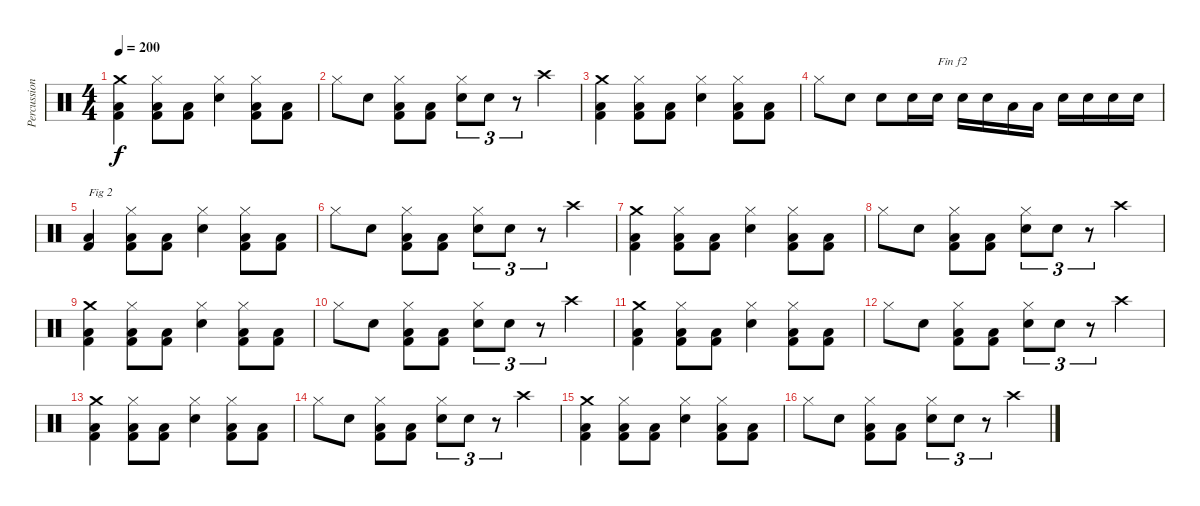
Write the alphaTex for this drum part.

\track ("Percussions" "Percussion") {instrument percussion}
\staff {score}
\articulation defaults
\ts (4 4)
\tempo 200
\clef neutral
\ks c
("Kick (hit) 2" "Low Floor Tom (hit)" "Crash medium (hit)").4{dy f} ("Kick (hit) 2" "Low Floor Tom (hit)" "Hi-Hat (closed)").8 ("Kick (hit) 2" "Low Floor Tom (hit)").8 ("Snare (hit) 2" "Hi-Hat (closed)").4 ("Kick (hit) 2" "Low Floor Tom (hit)" "Hi-Hat (closed)").8 ("Kick (hit) 2" "Low Floor Tom (hit)").8 |
"Hi-Hat (closed)".8 "Snare (hit) 2".8 ("Kick (hit) 2" "Low Floor Tom (hit)" "Hi-Hat (closed)").8 ("Kick (hit) 2" "Low Floor Tom (hit)").8 ("Snare (hit) 2" "Hi-Hat (closed)").8{tu (3 2)} "Snare (hit) 2".8{tu (3 2)} r.8{tu (3 2)} "Crash high (hit)".4 |
("Kick (hit) 2" "Low Floor Tom (hit)" "Crash medium (hit)").4 ("Kick (hit) 2" "Low Floor Tom (hit)" "Hi-Hat (closed)").8 ("Kick (hit) 2" "Low Floor Tom (hit)").8 ("Snare (hit) 2" "Hi-Hat (closed)").4 ("Kick (hit) 2" "Low Floor Tom (hit)" "Hi-Hat (closed)").8 ("Kick (hit) 2" "Low Floor Tom (hit)").8 |
"Hi-Hat (closed)".8 "Snare (hit) 2".8 "Snare (hit) 2".8 "Snare (hit) 2".16 "Snare (hit) 2".16{txt "Fin f2"} "Snare (hit) 2".16 "Snare (hit) 2".16 "Low Tom (hit)".16 "Low Tom (hit)".16 "Snare (hit) 2".16 "Snare (hit) 2".16 "Snare (hit) 2".16 "Snare (hit) 2".16 |
("Kick (hit) 2" "Low Floor Tom (hit)").4{txt "Fig 2"} ("Kick (hit) 2" "Low Floor Tom (hit)" "Hi-Hat (closed)").8 ("Kick (hit) 2" "Low Floor Tom (hit)").8 ("Snare (hit) 2" "Hi-Hat (closed)").4 ("Kick (hit) 2" "Low Floor Tom (hit)" "Hi-Hat (closed)").8 ("Kick (hit) 2" "Low Floor Tom (hit)").8 |
"Hi-Hat (closed)".8 "Snare (hit) 2".8 ("Kick (hit) 2" "Low Floor Tom (hit)" "Hi-Hat (closed)").8 ("Kick (hit) 2" "Low Floor Tom (hit)").8 ("Snare (hit) 2" "Hi-Hat (closed)").8{tu (3 2)} "Snare (hit) 2".8{tu (3 2)} r.8{tu (3 2)} "Crash high (hit)".4 |
("Kick (hit) 2" "Low Floor Tom (hit)" "Crash medium (hit)").4 ("Kick (hit) 2" "Low Floor Tom (hit)" "Hi-Hat (closed)").8 ("Kick (hit) 2" "Low Floor Tom (hit)").8 ("Snare (hit) 2" "Hi-Hat (closed)").4 ("Kick (hit) 2" "Low Floor Tom (hit)" "Hi-Hat (closed)").8 ("Kick (hit) 2" "Low Floor Tom (hit)").8 |
"Hi-Hat (closed)".8 "Snare (hit) 2".8 ("Kick (hit) 2" "Low Floor Tom (hit)" "Hi-Hat (closed)").8 ("Kick (hit) 2" "Low Floor Tom (hit)").8 ("Snare (hit) 2" "Hi-Hat (closed)").8{tu (3 2)} "Snare (hit) 2".8{tu (3 2)} r.8{tu (3 2)} "Crash high (hit)".4 |
("Kick (hit) 2" "Low Floor Tom (hit)" "Crash medium (hit)").4 ("Kick (hit) 2" "Low Floor Tom (hit)" "Hi-Hat (closed)").8 ("Kick (hit) 2" "Low Floor Tom (hit)").8 ("Snare (hit) 2" "Hi-Hat (closed)").4 ("Kick (hit) 2" "Low Floor Tom (hit)" "Hi-Hat (closed)").8 ("Kick (hit) 2" "Low Floor Tom (hit)").8 |
"Hi-Hat (closed)".8 "Snare (hit) 2".8 ("Kick (hit) 2" "Low Floor Tom (hit)" "Hi-Hat (closed)").8 ("Kick (hit) 2" "Low Floor Tom (hit)").8 ("Snare (hit) 2" "Hi-Hat (closed)").8{tu (3 2)} "Snare (hit) 2".8{tu (3 2)} r.8{tu (3 2)} "Crash high (hit)".4 |
("Kick (hit) 2" "Low Floor Tom (hit)" "Crash medium (hit)").4 ("Kick (hit) 2" "Low Floor Tom (hit)" "Hi-Hat (closed)").8 ("Kick (hit) 2" "Low Floor Tom (hit)").8 ("Snare (hit) 2" "Hi-Hat (closed)").4 ("Kick (hit) 2" "Low Floor Tom (hit)" "Hi-Hat (closed)").8 ("Kick (hit) 2" "Low Floor Tom (hit)").8 |
"Hi-Hat (closed)".8 "Snare (hit) 2".8 ("Kick (hit) 2" "Low Floor Tom (hit)" "Hi-Hat (closed)").8 ("Kick (hit) 2" "Low Floor Tom (hit)").8 ("Snare (hit) 2" "Hi-Hat (closed)").8{tu (3 2)} "Snare (hit) 2".8{tu (3 2)} r.8{tu (3 2)} "Crash high (hit)".4 |
("Kick (hit) 2" "Low Floor Tom (hit)" "Crash medium (hit)").4 ("Kick (hit) 2" "Low Floor Tom (hit)" "Hi-Hat (closed)").8 ("Kick (hit) 2" "Low Floor Tom (hit)").8 ("Snare (hit) 2" "Hi-Hat (closed)").4 ("Kick (hit) 2" "Low Floor Tom (hit)" "Hi-Hat (closed)").8 ("Kick (hit) 2" "Low Floor Tom (hit)").8 |
"Hi-Hat (closed)".8 "Snare (hit) 2".8 ("Kick (hit) 2" "Low Floor Tom (hit)" "Hi-Hat (closed)").8 ("Kick (hit) 2" "Low Floor Tom (hit)").8 ("Snare (hit) 2" "Hi-Hat (closed)").8{tu (3 2)} "Snare (hit) 2".8{tu (3 2)} r.8{tu (3 2)} "Crash high (hit)".4 |
("Kick (hit) 2" "Low Floor Tom (hit)" "Crash medium (hit)").4 ("Kick (hit) 2" "Low Floor Tom (hit)" "Hi-Hat (closed)").8 ("Kick (hit) 2" "Low Floor Tom (hit)").8 ("Snare (hit) 2" "Hi-Hat (closed)").4 ("Kick (hit) 2" "Low Floor Tom (hit)" "Hi-Hat (closed)").8 ("Kick (hit) 2" "Low Floor Tom (hit)").8 |
"Hi-Hat (closed)".8 "Snare (hit) 2".8 ("Kick (hit) 2" "Low Floor Tom (hit)" "Hi-Hat (closed)").8 ("Kick (hit) 2" "Low Floor Tom (hit)").8 ("Snare (hit) 2" "Hi-Hat (closed)").8{tu (3 2)} "Snare (hit) 2".8{tu (3 2)} r.8{tu (3 2)} "Crash high (hit)".4
